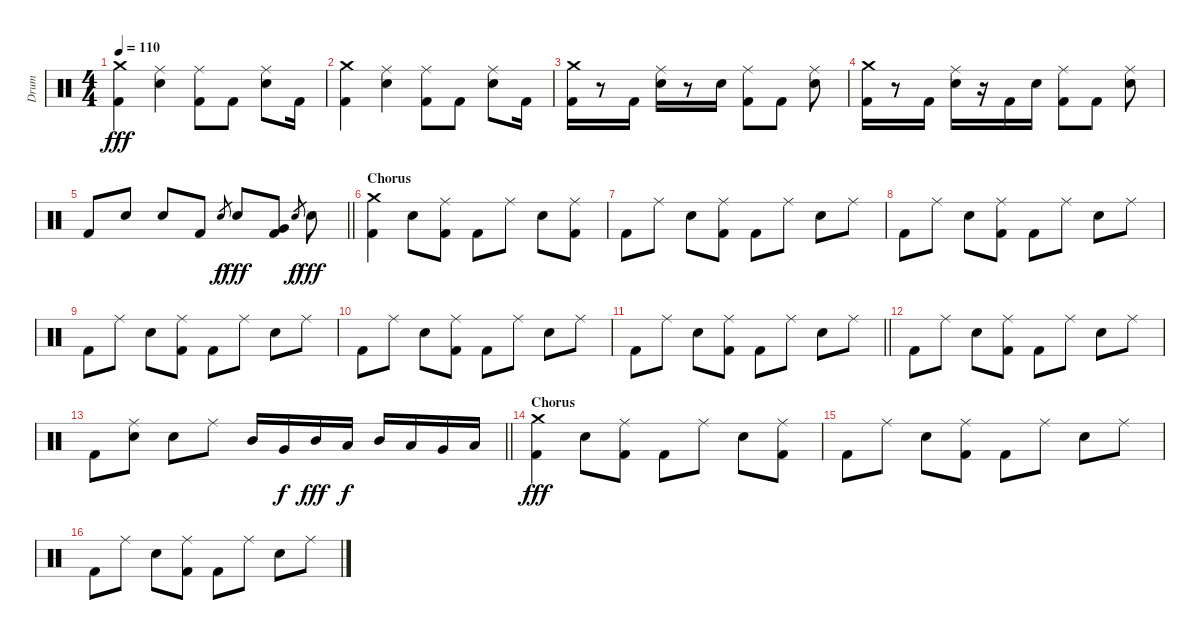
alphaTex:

\track ("Drum" "Drum") {instrument percussion}
\staff {score}
\articulation defaults
\ts (4 4)
\tempo 110
\clef neutral
\ks c
("Crash medium (hit)" "Kick (hit) 2").4{dy fff} ("Ride (middle)" "Electric Snare (hit)").4 ("Ride (middle)" "Kick (hit) 2").8 "Kick (hit) 2".8 ("Ride (middle)" "Electric Snare (hit)").8 "Kick (hit) 2".16 |
("Crash medium (hit)" "Kick (hit) 2").4 ("Ride (middle)" "Electric Snare (hit)").4 ("Ride (middle)" "Kick (hit) 2").8 "Kick (hit) 2".8 ("Ride (middle)" "Electric Snare (hit)").8 "Kick (hit) 2".16 |
("Crash medium (hit)" "Kick (hit) 2").16 r.8 "Kick (hit) 2".16 ("Ride (middle)" "Electric Snare (hit)").16 r.8 "Electric Snare (hit)".16 ("Ride (middle)" "Kick (hit) 2").8 "Kick (hit) 2".8 ("Ride (middle)" "Electric Snare (hit)").8 |
("Crash medium (hit)" "Kick (hit) 2").16 r.8 "Kick (hit) 2".16 ("Ride (middle)" "Electric Snare (hit)").16 r.16 "Kick (hit) 2".16 "Electric Snare (hit)".16 ("Ride (middle)" "Kick (hit) 2").8 "Kick (hit) 2".8 ("Ride (middle)" "Electric Snare (hit)").8 |
\barLineRight lightlight "Kick (hit) 2".8 "Electric Snare (hit)".8 "Electric Snare (hit)".8 "Kick (hit) 2".8 "Electric Snare (hit)".8{gr dy f} "Electric Snare (hit)".8{dy fff}
("Very Low Tom (hit)" "Kick (hit) 2").8 "Electric Snare (hit)".8{gr dy f} "Electric Snare (hit)".8{dy fff} |
\section ("" "Chorus")
("Crash medium (hit)" "Kick (hit) 2").4 "Electric Snare (hit)".8 ("Ride (middle)" "Kick (hit) 2").8 "Kick (hit) 2".8 "Ride (middle)".8 "Electric Snare (hit)".8 ("Ride (middle)" "Kick (hit) 2").8 |
"Kick (hit) 2".8 "Ride (middle)".8 "Electric Snare (hit)".8 ("Ride (middle)" "Kick (hit) 2").8 "Kick (hit) 2".8 "Ride (middle)".8 "Electric Snare (hit)".8 "Ride (middle)".8 |
"Kick (hit) 2".8 "Ride (middle)".8 "Electric Snare (hit)".8 ("Ride (middle)" "Kick (hit) 2").8 "Kick (hit) 2".8 "Ride (middle)".8 "Electric Snare (hit)".8 "Ride (middle)".8 |
"Kick (hit) 2".8 "Ride (middle)".8 "Electric Snare (hit)".8 ("Ride (middle)" "Kick (hit) 2").8 "Kick (hit) 2".8 "Ride (middle)".8 "Electric Snare (hit)".8 "Ride (middle)".8 |
"Kick (hit) 2".8 "Ride (middle)".8 "Electric Snare (hit)".8 ("Ride (middle)" "Kick (hit) 2").8 "Kick (hit) 2".8 "Ride (middle)".8 "Electric Snare (hit)".8 "Ride (middle)".8 |
\barLineRight lightlight "Kick (hit) 2".8 "Ride (middle)".8 "Electric Snare (hit)".8
("Ride (middle)" "Kick (hit) 2").8 "Kick (hit) 2".8 "Ride (middle)".8 "Electric Snare (hit)".8 "Ride (middle)".8 |
"Kick (hit) 2".8 "Ride (middle)".8 "Electric Snare (hit)".8 ("Ride (middle)" "Kick (hit) 2").8 "Kick (hit) 2".8 "Ride (middle)".8 "Electric Snare (hit)".8 "Ride (middle)".8 |
\barLineRight lightlight "Kick (hit) 2".8
("Ride (middle)" "Electric Snare (hit)").8 "Electric Snare (hit)".8 "Ride (middle)".8 "Mid Tom (hit)".16 "Very Low Tom (hit)".16{dy f} "Mid Tom (hit)".16{dy fff} "Low Tom (hit)".16{dy f} "Mid Tom (hit)".16 "Low Tom (hit)".16 "Very Low Tom (hit)".16 "Low Floor Tom (hit)".16 |
\section ("" "Chorus")
("Crash medium (hit)" "Kick (hit) 2").4{dy fff} "Electric Snare (hit)".8 ("Ride (middle)" "Kick (hit) 2").8 "Kick (hit) 2".8 "Ride (middle)".8 "Electric Snare (hit)".8 ("Ride (middle)" "Kick (hit) 2").8 |
"Kick (hit) 2".8 "Ride (middle)".8 "Electric Snare (hit)".8 ("Ride (middle)" "Kick (hit) 2").8 "Kick (hit) 2".8 "Ride (middle)".8 "Electric Snare (hit)".8 "Ride (middle)".8 |
"Kick (hit) 2".8 "Ride (middle)".8 "Electric Snare (hit)".8 ("Ride (middle)" "Kick (hit) 2").8 "Kick (hit) 2".8 "Ride (middle)".8 "Electric Snare (hit)".8 "Ride (middle)".8
